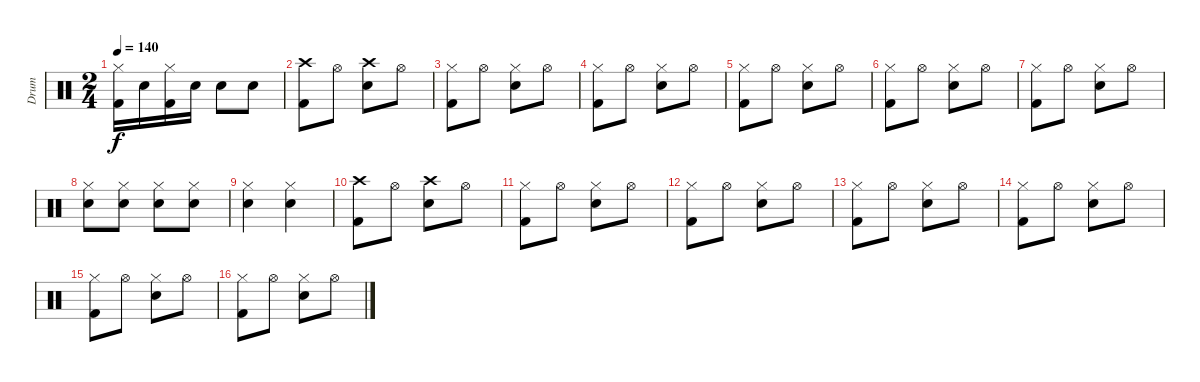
\track ("Drum" "Drum") {instrument percussion}
\staff {score}
\articulation defaults
\ts (2 4)
\tempo 140
\clef neutral
\ks c
("Hi-Hat (closed)" "Kick (hit) 2").16{dy f} "Electric Snare (hit)".16 ("Hi-Hat (closed)" "Kick (hit) 2").16 "Electric Snare (hit)".16 "Electric Snare (hit)".8 "Electric Snare (hit)".8 |
("Crash high (hit)" "Kick (hit) 2").8 "Hi-Hat (open)".8 ("Crash high (hit)" "Electric Snare (hit)").8 "Hi-Hat (open)".8 |
("Kick (hit) 2" "Hi-Hat (closed)").8 "Hi-Hat (open)".8 ("Hi-Hat (closed)" "Electric Snare (hit)").8 "Hi-Hat (open)".8 |
("Kick (hit) 2" "Hi-Hat (closed)").8 "Hi-Hat (open)".8 ("Hi-Hat (closed)" "Electric Snare (hit)").8 "Hi-Hat (open)".8 |
("Kick (hit) 2" "Hi-Hat (closed)").8 "Hi-Hat (open)".8 ("Hi-Hat (closed)" "Electric Snare (hit)").8 "Hi-Hat (open)".8 |
("Kick (hit) 2" "Hi-Hat (closed)").8 "Hi-Hat (open)".8 ("Hi-Hat (closed)" "Electric Snare (hit)").8 "Hi-Hat (open)".8 |
("Hi-Hat (closed)" "Kick (hit) 2").8 "Hi-Hat (open)".8 ("Hi-Hat (closed)" "Electric Snare (hit)").8 "Hi-Hat (open)".8 |
("Electric Snare (hit)" "Hi-Hat (closed)").8 ("Electric Snare (hit)" "Hi-Hat (closed)").8 ("Electric Snare (hit)" "Hi-Hat (closed)").8 ("Electric Snare (hit)" "Hi-Hat (closed)").8 |
("Electric Snare (hit)" "Hi-Hat (closed)").4 ("Electric Snare (hit)" "Hi-Hat (closed)").4 |
("Crash high (hit)" "Kick (hit) 2").8 "Hi-Hat (open)".8 ("Crash high (hit)" "Electric Snare (hit)").8 "Hi-Hat (open)".8 |
("Kick (hit) 2" "Hi-Hat (closed)").8 "Hi-Hat (open)".8 ("Hi-Hat (closed)" "Electric Snare (hit)").8 "Hi-Hat (open)".8 |
("Kick (hit) 2" "Hi-Hat (closed)").8 "Hi-Hat (open)".8 ("Hi-Hat (closed)" "Electric Snare (hit)").8 "Hi-Hat (open)".8 |
("Kick (hit) 2" "Hi-Hat (closed)").8 "Hi-Hat (open)".8 ("Hi-Hat (closed)" "Electric Snare (hit)").8 "Hi-Hat (open)".8 |
("Kick (hit) 2" "Hi-Hat (closed)").8 "Hi-Hat (open)".8 ("Hi-Hat (closed)" "Electric Snare (hit)").8 "Hi-Hat (open)".8 |
("Hi-Hat (closed)" "Kick (hit) 2").8 "Hi-Hat (open)".8 ("Hi-Hat (closed)" "Electric Snare (hit)").8 "Hi-Hat (open)".8 |
("Hi-Hat (closed)" "Kick (hit) 2").8 "Hi-Hat (open)".8 ("Hi-Hat (closed)" "Electric Snare (hit)").8 "Hi-Hat (open)".8
